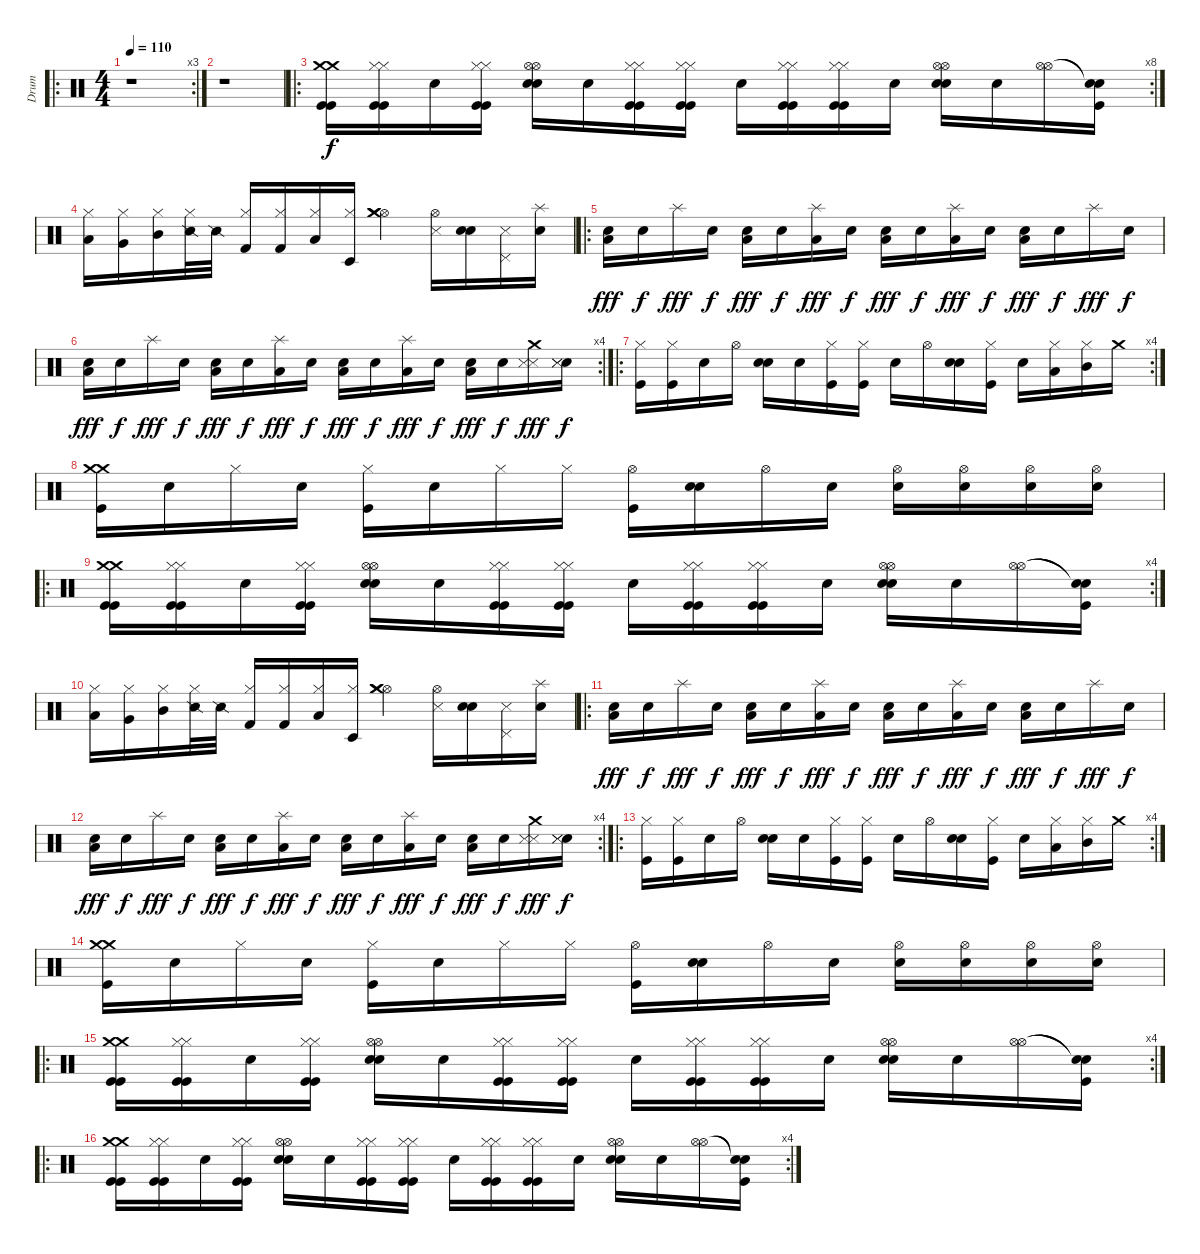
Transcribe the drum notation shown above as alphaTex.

\track ("Drum" "Drum") {instrument percussion}
\staff {score}
\articulation defaults
\ro
\rc 3
\ts (4 4)
\tempo 110
\clef neutral
\ks c
r.1{dy f} |
r.1 |
\ro
\rc 8
("Crash medium (hit)" "Crash medium (hit)" "Kick (hit)" "Kick (hit)").16 ("Hi-Hat (closed)" "Hi-Hat (closed)" "Kick (hit)" "Kick (hit)").16 "Snare (hit)".16 ("Hi-Hat (closed)" "Hi-Hat (closed)" "Kick (hit)" "Kick (hit)").16 ("Hi-Hat (open)" "Hi-Hat (open)" "Snare (hit) 2" "Snare (hit) 2").16 "Snare (hit)".16 ("Hi-Hat (closed)" "Hi-Hat (closed)" "Kick (hit)" "Kick (hit)").16 ("Hi-Hat (closed)" "Hi-Hat (closed)" "Kick (hit)" "Kick (hit)").16 "Snare (hit)".16 ("Hi-Hat (closed)" "Hi-Hat (closed)" "Kick (hit)" "Kick (hit)").16 ("Hi-Hat (closed)" "Hi-Hat (closed)" "Kick (hit)" "Kick (hit)").16 "Snare (hit)".16 ("Hi-Hat (open)" "Hi-Hat (open)" "Snare (hit) 2" "Snare (hit) 2").16 "Snare (hit)".16 ("Hi-Hat (open)" "Hi-Hat (open)").16 ("Snare (hit)"{t} "Snare (hit)"{t} "Kick (hit)").16 |
("Hi-Hat (closed)" "Low Tom (hit)").16 ("Hi-Hat (closed)" "Very Low Tom (hit)").16 ("Hi-Hat (closed)" "Mid Tom (hit)").16 ("Hi-Hat (closed)" "Snare (side stick) 2").32 "Snare (side stick) 2".32 ("Hi-Hat (closed)" "Kick (hit) 2").16 ("Hi-Hat (closed)" "Kick (hit) 2").16 ("Hi-Hat (closed)" "Low Floor Tom (hit)").16 ("Hi-Hat (closed)" "Timbale low (hit)").16 ("Hi-Hat (open)" "Crash medium (hit)" "Crash medium (hit)").4 ("Hi-Hat (open)" "Metronome (hit)").16 ("Snare (hit)" "Snare (hit)").16 ("Pedal Hi-Hat (hit)" "Metronome (hit)").16 ("Splash (hit)" "Snare (hit) 2").16 |
\ro
("Snare (hit)" "Low Floor Tom (hit)").16{dy fff} "Snare (hit)".16{dy f} "Splash (hit)".16{dy fff} "Snare (hit)".16{dy f} ("Snare (hit)" "Low Tom (hit)").16{dy fff} "Snare (hit)".16{dy f} ("Splash (hit)" "Low Floor Tom (hit)").16{dy fff} "Snare (hit)".16{dy f} ("Snare (hit)" "Low Floor Tom (hit)").16{dy fff} "Snare (hit)".16{dy f} ("Splash (hit)" "Low Floor Tom (hit)").16{dy fff} "Snare (hit)".16{dy f} ("Snare (hit)" "Low Tom (hit)").16{dy fff} "Snare (hit)".16{dy f} "Splash (hit)".16{dy fff} "Snare (hit)".16{dy f} |
\rc 4
("Snare (hit)" "Low Floor Tom (hit)").16{dy fff} "Snare (hit)".16{dy f} "Splash (hit)".16{dy fff} "Snare (hit)".16{dy f} ("Snare (hit)" "Low Tom (hit)").16{dy fff} "Snare (hit)".16{dy f} ("Splash (hit)" "Low Floor Tom (hit)").16{dy fff} "Snare (hit)".16{dy f} ("Snare (hit)" "Low Floor Tom (hit)").16{dy fff} "Snare (hit)".16{dy f} ("Splash (hit)" "Low Floor Tom (hit)").16{dy fff} "Snare (hit)".16{dy f} ("Snare (hit)" "Low Tom (hit)").16{dy fff} "Snare (hit)".16{dy f} ("Crash medium (hit)" "Metronome (hit)" "Metronome (hit)").16{dy fff} ("Snare (hit)" "Metronome (hit)" "Metronome (hit)").16{dy f} |
\ro
\rc 4
("Hi-Hat (closed)" "Kick (hit)").16 ("Hi-Hat (closed)" "Kick (hit)").16 "Snare (hit)".16 "Hi-Hat (open)".16 ("Snare (hit)" "Snare (hit) 2").16 "Snare (hit)".16 ("Hi-Hat (closed)" "Kick (hit)").16 ("Hi-Hat (closed)" "Kick (hit)").16 "Snare (hit)".16 "Hi-Hat (open)".16 ("Snare (hit)" "Snare (hit) 2").16 ("Hi-Hat (closed)" "Kick (hit)").16 "Snare (hit)".16 ("Hi-Hat (closed)" "Low Tom (hit)").16 ("Hi-Hat (closed)" "Mid Tom (hit)").16 "Crash medium (hit)".16 |
("Crash medium (hit)" "Crash medium (hit)" "Kick (hit)").16 "Snare (hit)".16 "Hi-Hat (closed)".16 "Snare (hit)".16 ("Hi-Hat (closed)" "Kick (hit)").16 "Snare (hit)".16 "Hi-Hat (closed)".16 "Hi-Hat (closed)".16 ("Hi-Hat (open)" "Kick (hit)").16 ("Snare (hit)" "Snare (hit) 2").16 "Hi-Hat (open)".16 "Snare (hit)".16 ("Hi-Hat (open)" "Snare (hit) 2").16 ("Hi-Hat (open)" "Snare (hit) 2").16 ("Hi-Hat (open)" "Snare (hit) 2").16 ("Hi-Hat (open)" "Snare (hit) 2").16 |
\ro
\rc 4
("Crash medium (hit)" "Crash medium (hit)" "Kick (hit)" "Kick (hit)").16 ("Hi-Hat (closed)" "Hi-Hat (closed)" "Kick (hit)" "Kick (hit)").16 "Snare (hit)".16 ("Hi-Hat (closed)" "Hi-Hat (closed)" "Kick (hit)" "Kick (hit)").16 ("Hi-Hat (open)" "Hi-Hat (open)" "Snare (hit) 2" "Snare (hit) 2").16 "Snare (hit)".16 ("Hi-Hat (closed)" "Hi-Hat (closed)" "Kick (hit)" "Kick (hit)").16 ("Hi-Hat (closed)" "Hi-Hat (closed)" "Kick (hit)" "Kick (hit)").16 "Snare (hit)".16 ("Hi-Hat (closed)" "Hi-Hat (closed)" "Kick (hit)" "Kick (hit)").16 ("Hi-Hat (closed)" "Hi-Hat (closed)" "Kick (hit)" "Kick (hit)").16 "Snare (hit)".16 ("Hi-Hat (open)" "Hi-Hat (open)" "Snare (hit) 2" "Snare (hit) 2").16 "Snare (hit)".16 ("Hi-Hat (open)" "Hi-Hat (open)").16 ("Snare (hit)"{t} "Snare (hit)"{t} "Kick (hit)").16 |
("Hi-Hat (closed)" "Low Tom (hit)").16 ("Hi-Hat (closed)" "Very Low Tom (hit)").16 ("Hi-Hat (closed)" "Mid Tom (hit)").16 ("Hi-Hat (closed)" "Snare (side stick) 2").32 "Snare (side stick) 2".32 ("Hi-Hat (closed)" "Kick (hit) 2").16 ("Hi-Hat (closed)" "Kick (hit) 2").16 ("Hi-Hat (closed)" "Low Floor Tom (hit)").16 ("Hi-Hat (closed)" "Timbale low (hit)").16 ("Hi-Hat (open)" "Crash medium (hit)" "Crash medium (hit)").4 ("Hi-Hat (open)" "Metronome (hit)").16 ("Snare (hit)" "Snare (hit)").16 ("Pedal Hi-Hat (hit)" "Metronome (hit)").16 ("Splash (hit)" "Snare (hit) 2").16 |
\ro
("Snare (hit)" "Low Floor Tom (hit)").16{dy fff} "Snare (hit)".16{dy f} "Splash (hit)".16{dy fff} "Snare (hit)".16{dy f} ("Snare (hit)" "Low Tom (hit)").16{dy fff} "Snare (hit)".16{dy f} ("Splash (hit)" "Low Floor Tom (hit)").16{dy fff} "Snare (hit)".16{dy f} ("Snare (hit)" "Low Floor Tom (hit)").16{dy fff} "Snare (hit)".16{dy f} ("Splash (hit)" "Low Floor Tom (hit)").16{dy fff} "Snare (hit)".16{dy f} ("Snare (hit)" "Low Tom (hit)").16{dy fff} "Snare (hit)".16{dy f} "Splash (hit)".16{dy fff} "Snare (hit)".16{dy f} |
\rc 4
("Snare (hit)" "Low Floor Tom (hit)").16{dy fff} "Snare (hit)".16{dy f} "Splash (hit)".16{dy fff} "Snare (hit)".16{dy f} ("Snare (hit)" "Low Tom (hit)").16{dy fff} "Snare (hit)".16{dy f} ("Splash (hit)" "Low Floor Tom (hit)").16{dy fff} "Snare (hit)".16{dy f} ("Snare (hit)" "Low Floor Tom (hit)").16{dy fff} "Snare (hit)".16{dy f} ("Splash (hit)" "Low Floor Tom (hit)").16{dy fff} "Snare (hit)".16{dy f} ("Snare (hit)" "Low Tom (hit)").16{dy fff} "Snare (hit)".16{dy f} ("Crash medium (hit)" "Metronome (hit)" "Metronome (hit)").16{dy fff} ("Snare (hit)" "Metronome (hit)" "Metronome (hit)").16{dy f} |
\ro
\rc 4
("Hi-Hat (closed)" "Kick (hit)").16 ("Hi-Hat (closed)" "Kick (hit)").16 "Snare (hit)".16 "Hi-Hat (open)".16 ("Snare (hit)" "Snare (hit) 2").16 "Snare (hit)".16 ("Hi-Hat (closed)" "Kick (hit)").16 ("Hi-Hat (closed)" "Kick (hit)").16 "Snare (hit)".16 "Hi-Hat (open)".16 ("Snare (hit)" "Snare (hit) 2").16 ("Hi-Hat (closed)" "Kick (hit)").16 "Snare (hit)".16 ("Hi-Hat (closed)" "Low Tom (hit)").16 ("Hi-Hat (closed)" "Mid Tom (hit)").16 "Crash medium (hit)".16 |
("Crash medium (hit)" "Crash medium (hit)" "Kick (hit)").16 "Snare (hit)".16 "Hi-Hat (closed)".16 "Snare (hit)".16 ("Hi-Hat (closed)" "Kick (hit)").16 "Snare (hit)".16 "Hi-Hat (closed)".16 "Hi-Hat (closed)".16 ("Hi-Hat (open)" "Kick (hit)").16 ("Snare (hit)" "Snare (hit) 2").16 "Hi-Hat (open)".16 "Snare (hit)".16 ("Hi-Hat (open)" "Snare (hit) 2").16 ("Hi-Hat (open)" "Snare (hit) 2").16 ("Hi-Hat (open)" "Snare (hit) 2").16 ("Hi-Hat (open)" "Snare (hit) 2").16 |
\ro
\rc 4
("Crash medium (hit)" "Crash medium (hit)" "Kick (hit)" "Kick (hit)").16 ("Hi-Hat (closed)" "Hi-Hat (closed)" "Kick (hit)" "Kick (hit)").16 "Snare (hit)".16 ("Hi-Hat (closed)" "Hi-Hat (closed)" "Kick (hit)" "Kick (hit)").16 ("Hi-Hat (open)" "Hi-Hat (open)" "Snare (hit) 2" "Snare (hit) 2").16 "Snare (hit)".16 ("Hi-Hat (closed)" "Hi-Hat (closed)" "Kick (hit)" "Kick (hit)").16 ("Hi-Hat (closed)" "Hi-Hat (closed)" "Kick (hit)" "Kick (hit)").16 "Snare (hit)".16 ("Hi-Hat (closed)" "Hi-Hat (closed)" "Kick (hit)" "Kick (hit)").16 ("Hi-Hat (closed)" "Hi-Hat (closed)" "Kick (hit)" "Kick (hit)").16 "Snare (hit)".16 ("Hi-Hat (open)" "Hi-Hat (open)" "Snare (hit) 2" "Snare (hit) 2").16 "Snare (hit)".16 ("Hi-Hat (open)" "Hi-Hat (open)").16 ("Snare (hit)"{t} "Snare (hit)"{t} "Kick (hit)").16 |
\ro
\rc 4
("Crash medium (hit)" "Crash medium (hit)" "Kick (hit)" "Kick (hit)").16 ("Hi-Hat (closed)" "Hi-Hat (closed)" "Kick (hit)" "Kick (hit)").16 "Snare (hit)".16 ("Hi-Hat (closed)" "Hi-Hat (closed)" "Kick (hit)" "Kick (hit)").16 ("Hi-Hat (open)" "Hi-Hat (open)" "Snare (hit) 2" "Snare (hit) 2").16 "Snare (hit)".16 ("Hi-Hat (closed)" "Hi-Hat (closed)" "Kick (hit)" "Kick (hit)").16 ("Hi-Hat (closed)" "Hi-Hat (closed)" "Kick (hit)" "Kick (hit)").16 "Snare (hit)".16 ("Hi-Hat (closed)" "Hi-Hat (closed)" "Kick (hit)" "Kick (hit)").16 ("Hi-Hat (closed)" "Hi-Hat (closed)" "Kick (hit)" "Kick (hit)").16 "Snare (hit)".16 ("Hi-Hat (open)" "Hi-Hat (open)" "Snare (hit) 2" "Snare (hit) 2").16 "Snare (hit)".16 ("Hi-Hat (open)" "Hi-Hat (open)").16 ("Snare (hit)"{t} "Snare (hit)"{t} "Kick (hit)").16
